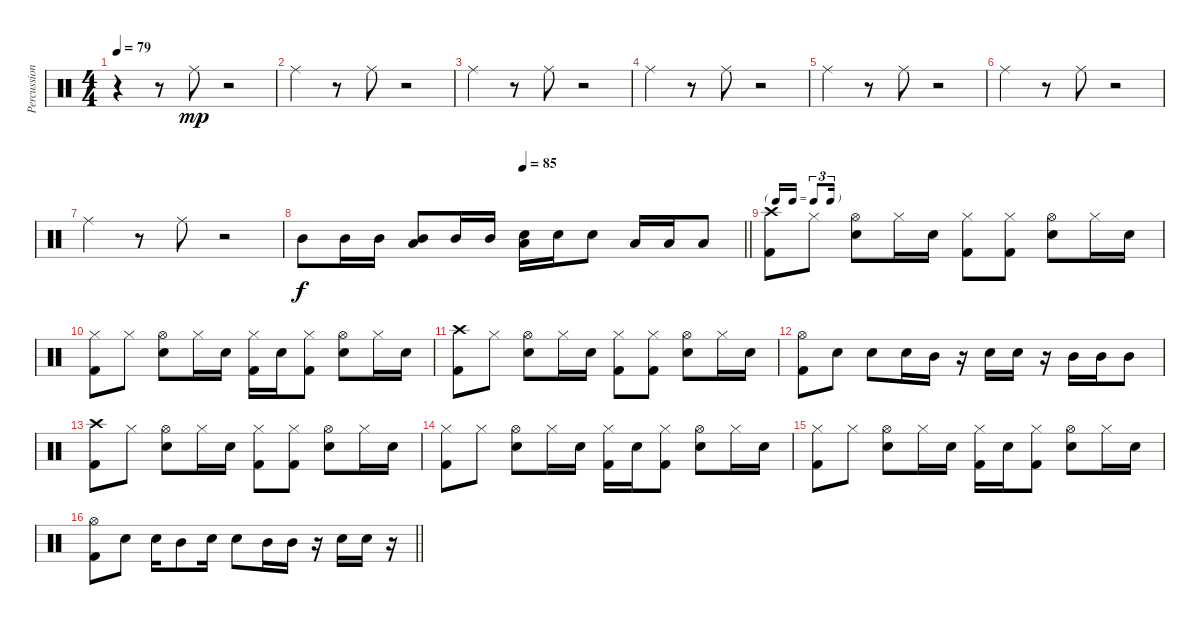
\track ("Percussion" "Percussion") {instrument percussion}
\staff {score}
\articulation defaults
\ts (4 4)
\tempo 79
\clef neutral
\ks c
r.4{dy mp} r.8 "Ride (middle)".8 r.2 |
"Ride (middle)".4 r.8 "Ride (middle)".8 r.2 |
"Ride (middle)".4 r.8 "Ride (middle)".8 r.2 |
"Ride (middle)".4 r.8 "Ride (middle)".8 r.2 |
"Ride (middle)".4 r.8 "Ride (middle)".8 r.2 |
"Ride (middle)".4 r.8 "Ride (middle)".8 r.2 |
"Ride (middle)".4 r.8 "Ride (middle)".8 r.2 |
\tempo (85 0.5)
\barLineRight lightlight "Mid Tom (hit)".8{dy f} "Mid Tom (hit)".16 "Mid Tom (hit)".16
("Mid Tom (hit)" "Low Floor Tom (hit)").8 "Mid Tom (hit)".16 "Mid Tom (hit)".16 ("Snare (hit) 2" "Low Floor Tom (hit)").16 "Snare (hit) 2".16 "Snare (hit) 2".8 "Low Floor Tom (hit)".16 "Low Floor Tom (hit)".16 "Low Floor Tom (hit)".8 |
\tf triplet16th
("Crash high (hit)" "Kick (hit) 2").8 "Hi-Hat (closed)".8 ("Hi-Hat (open)" "Snare (hit) 2").8 "Hi-Hat (closed)".16 "Snare (hit) 2".16 ("Hi-Hat (closed)" "Kick (hit) 2").8 ("Hi-Hat (closed)" "Kick (hit) 2").8 ("Hi-Hat (open)" "Snare (hit) 2").8 "Hi-Hat (closed)".16 "Snare (hit) 2".16 |
("Hi-Hat (closed)" "Kick (hit) 2").8 "Hi-Hat (closed)".8 ("Hi-Hat (open)" "Snare (hit) 2").8 "Hi-Hat (closed)".16 "Snare (hit) 2".16 ("Hi-Hat (closed)" "Kick (hit) 2").16 "Snare (hit) 2".16 ("Hi-Hat (closed)" "Kick (hit) 2").8 ("Hi-Hat (open)" "Snare (hit) 2").8 "Hi-Hat (closed)".16 "Snare (hit) 2".16 |
("Crash high (hit)" "Kick (hit) 2").8 "Hi-Hat (closed)".8 ("Hi-Hat (open)" "Snare (hit) 2").8 "Hi-Hat (closed)".16 "Snare (hit) 2".16 ("Hi-Hat (closed)" "Kick (hit) 2").8 ("Hi-Hat (closed)" "Kick (hit) 2").8 ("Hi-Hat (open)" "Snare (hit) 2").8 "Hi-Hat (closed)".16 "Snare (hit) 2".16 |
("Hi-Hat (open)" "Kick (hit) 2").8 "Snare (hit) 2".8 "Snare (hit) 2".8 "Snare (hit) 2".16 "Mid Tom (hit)".16 r.16 "Snare (hit) 2".16 "Snare (hit) 2".16 r.16 "Mid Tom (hit)".16 "Mid Tom (hit)".16 "Mid Tom (hit)".8 |
("Crash high (hit)" "Kick (hit) 2").8 "Hi-Hat (closed)".8 ("Hi-Hat (open)" "Snare (hit) 2").8 "Hi-Hat (closed)".16 "Snare (hit) 2".16 ("Hi-Hat (closed)" "Kick (hit) 2").8 ("Hi-Hat (closed)" "Kick (hit) 2").8 ("Hi-Hat (open)" "Snare (hit) 2").8 "Hi-Hat (closed)".16 "Snare (hit) 2".16 |
("Hi-Hat (closed)" "Kick (hit) 2").8 "Hi-Hat (closed)".8 ("Hi-Hat (open)" "Snare (hit) 2").8 "Hi-Hat (closed)".16 "Snare (hit) 2".16 ("Hi-Hat (closed)" "Kick (hit) 2").16 "Snare (hit) 2".16 ("Hi-Hat (closed)" "Kick (hit) 2").8 ("Hi-Hat (open)" "Snare (hit) 2").8 "Hi-Hat (closed)".16 "Snare (hit) 2".16 |
("Hi-Hat (closed)" "Kick (hit) 2").8 "Hi-Hat (closed)".8 ("Hi-Hat (open)" "Snare (hit) 2").8 "Hi-Hat (closed)".16 "Snare (hit) 2".16 ("Hi-Hat (closed)" "Kick (hit) 2").16 "Snare (hit) 2".16 ("Hi-Hat (closed)" "Kick (hit) 2").8 ("Hi-Hat (open)" "Snare (hit) 2").8 "Hi-Hat (closed)".16 "Snare (hit) 2".16 |
\barLineRight lightlight
("Hi-Hat (open)" "Kick (hit) 2").8 "Snare (hit) 2".8 "Snare (hit) 2".16 "Mid Tom (hit)".8 "Snare (hit) 2".16 "Snare (hit) 2".8 "Mid Tom (hit)".16 "Mid Tom (hit)".16 r.16 "Snare (hit) 2".16 "Snare (hit) 2".16 r.16
